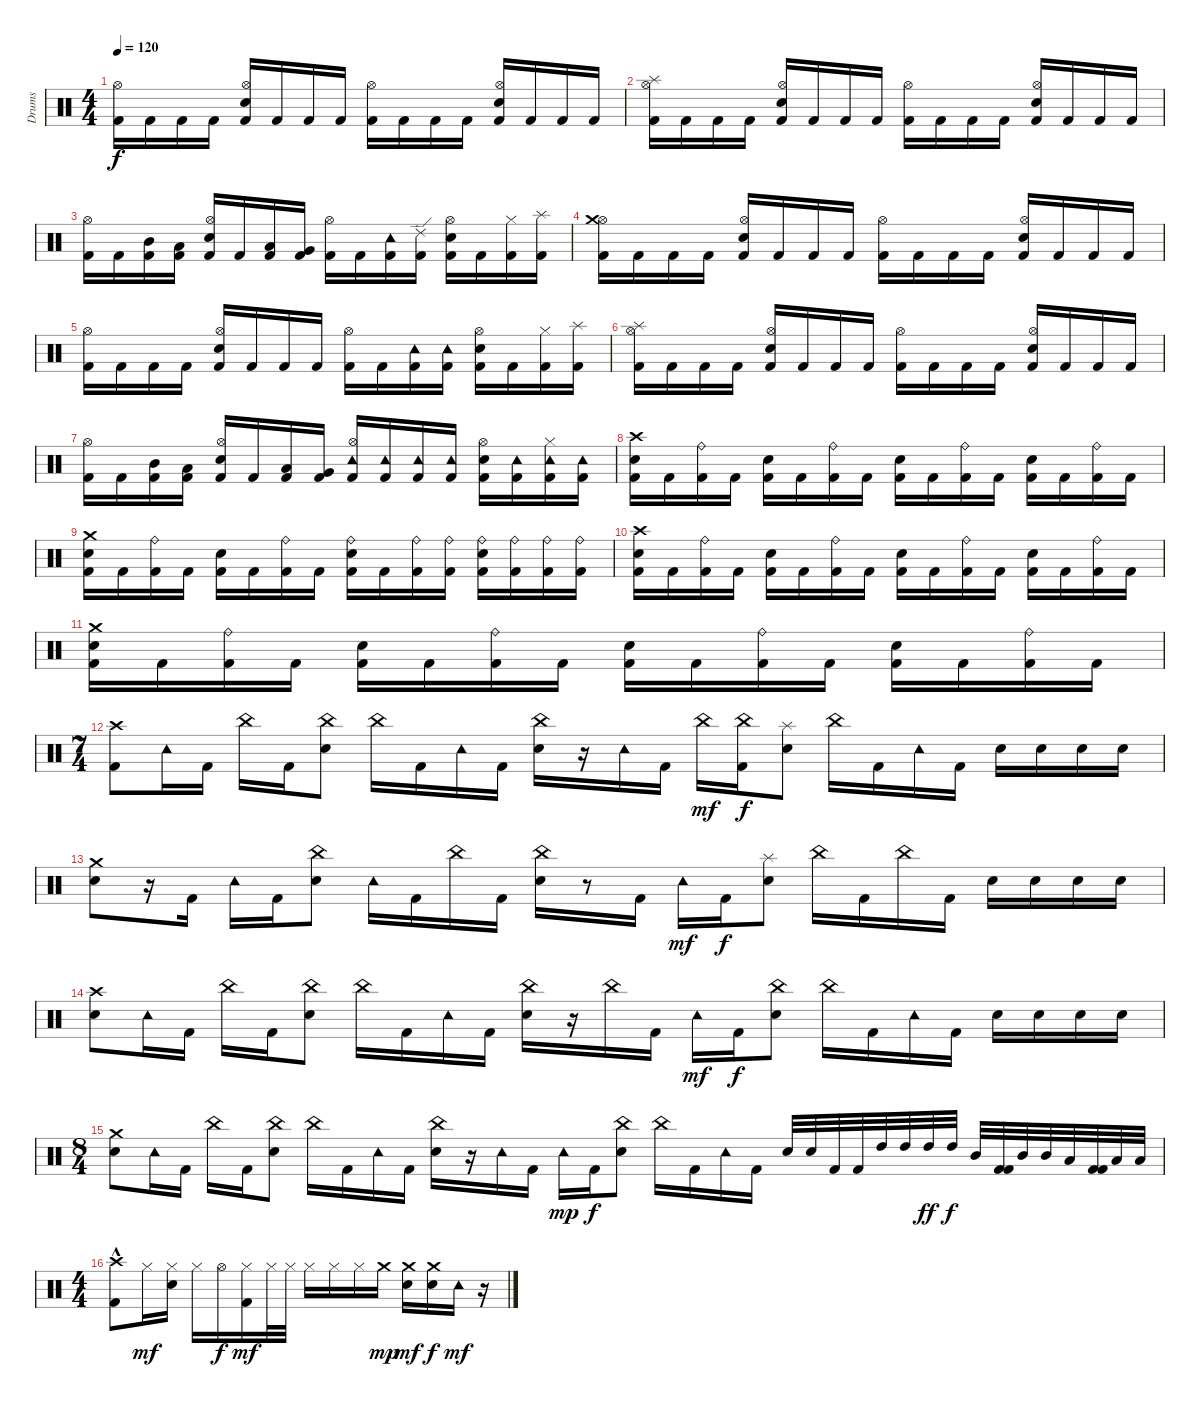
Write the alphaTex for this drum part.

\track ("Drums" "Drums") {instrument percussion}
\staff {score}
\articulation defaults
\ts (4 4)
\tempo 120
\clef neutral
\ks c
("Kick (hit) 2" "Hi-Hat (open)").16{dy f} "Kick (hit) 2".16 "Kick (hit) 2".16 "Kick (hit) 2".16 ("Kick (hit) 2" "Electric Snare (hit)" "Hi-Hat (open)").16 "Kick (hit) 2".16 "Kick (hit) 2".16 "Kick (hit) 2".16 ("Kick (hit) 2" "Hi-Hat (open)").16 "Kick (hit) 2".16 "Kick (hit) 2".16 "Kick (hit) 2".16 ("Kick (hit) 2" "Electric Snare (hit)" "Hi-Hat (open)").16 "Kick (hit) 2".16 "Kick (hit) 2".16 "Kick (hit) 2".16 |
("Kick (hit) 2" "Splash (hit)" "Hi-Hat (open)").16 "Kick (hit) 2".16 "Kick (hit) 2".16 "Kick (hit) 2".16 ("Kick (hit) 2" "Electric Snare (hit)" "Hi-Hat (open)").16 "Kick (hit) 2".16 "Kick (hit) 2".16 "Kick (hit) 2".16 ("Kick (hit) 2" "Hi-Hat (open)").16 "Kick (hit) 2".16 "Kick (hit) 2".16 "Kick (hit) 2".16 ("Kick (hit) 2" "Electric Snare (hit)" "Hi-Hat (open)").16 "Kick (hit) 2".16 "Kick (hit) 2".16 "Kick (hit) 2".16 |
("Kick (hit) 2" "Hi-Hat (open)").16 "Kick (hit) 2".16 ("Kick (hit) 2" "Mid Tom (hit)").16 ("Kick (hit) 2" "Low Tom (hit)").16 ("Kick (hit) 2" "Electric Snare (hit)" "Hi-Hat (open)").16 "Kick (hit) 2".16 ("Kick (hit) 2" "Low Tom (hit)").16 ("Kick (hit) 2" "Very Low Tom (hit)").16 ("Kick (hit) 2" "Hi-Hat (open)").16 "Kick (hit) 2".16 ("Kick (hit) 2" "Tambourine (hit)").16 ("Kick (hit) 2" "Ride (edge) 2").16 ("Kick (hit) 2" "Hi-Hat (open)" "Electric Snare (hit)").16 "Kick (hit) 2".16 ("Kick (hit) 2" "Hi-Hat (closed)").16 ("Kick (hit) 2" "Splash (hit)").16 |
("Kick (hit) 2" "Hi-Hat (open)" "Crash medium (hit)").16 "Kick (hit) 2".16 "Kick (hit) 2".16 "Kick (hit) 2".16 ("Kick (hit) 2" "Electric Snare (hit)" "Hi-Hat (open)").16 "Kick (hit) 2".16 "Kick (hit) 2".16 "Kick (hit) 2".16 ("Kick (hit) 2" "Hi-Hat (open)").16 "Kick (hit) 2".16 "Kick (hit) 2".16 "Kick (hit) 2".16 ("Kick (hit) 2" "Electric Snare (hit)" "Hi-Hat (open)").16 "Kick (hit) 2".16 "Kick (hit) 2".16 "Kick (hit) 2".16 |
("Kick (hit) 2" "Hi-Hat (open)").16 "Kick (hit) 2".16 "Kick (hit) 2".16 "Kick (hit) 2".16 ("Kick (hit) 2" "Electric Snare (hit)" "Hi-Hat (open)").16 "Kick (hit) 2".16 "Kick (hit) 2".16 "Kick (hit) 2".16 ("Hi-Hat (open)" "Kick (hit) 2").16 "Kick (hit) 2".16 ("Tambourine (hit)" "Kick (hit) 2").16 ("Kick (hit) 2" "Tambourine (hit)").16 ("Hi-Hat (open)" "Electric Snare (hit)" "Kick (hit) 2").16 "Kick (hit) 2".16 ("Hi-Hat (closed)" "Kick (hit) 2").16 ("Splash (hit)" "Kick (hit) 2").16 |
("Hi-Hat (open)" "Splash (hit)" "Kick (hit) 2").16 "Kick (hit) 2".16 "Kick (hit) 2".16 "Kick (hit) 2".16 ("Kick (hit) 2" "Electric Snare (hit)" "Hi-Hat (open)").16 "Kick (hit) 2".16 "Kick (hit) 2".16 "Kick (hit) 2".16 ("Kick (hit) 2" "Hi-Hat (open)").16 "Kick (hit) 2".16 "Kick (hit) 2".16 "Kick (hit) 2".16 ("Kick (hit) 2" "Electric Snare (hit)" "Hi-Hat (open)").16 "Kick (hit) 2".16 "Kick (hit) 2".16 "Kick (hit) 2".16 |
("Kick (hit) 2" "Hi-Hat (open)").16 "Kick (hit) 2".16 ("Kick (hit) 2" "Mid Tom (hit)").16 ("Kick (hit) 2" "Low Tom (hit)").16 ("Kick (hit) 2" "Electric Snare (hit)" "Hi-Hat (open)").16 "Kick (hit) 2".16 ("Kick (hit) 2" "Low Tom (hit)").16 ("Kick (hit) 2" "Very Low Tom (hit)").16 ("Kick (hit) 2" "Hi-Hat (open)" "Tambourine (hit)").16 ("Kick (hit) 2" "Tambourine (hit)").16 ("Kick (hit) 2" "Tambourine (hit)").16 ("Kick (hit) 2" "Tambourine (hit)").16 ("Kick (hit) 2" "Hi-Hat (open)" "Electric Snare (hit)").16 ("Kick (hit) 2" "Tambourine (hit)").16 ("Kick (hit) 2" "Hi-Hat (closed)" "Tambourine (hit)").16 ("Kick (hit) 2" "Tambourine (hit)").16 |
("Kick (hit) 2" "Electric Snare (hit)" "Crash high (hit)").16 "Kick (hit) 2".16 ("Kick (hit) 2" "Ride (bell)").16 "Kick (hit) 2".16 ("Kick (hit) 2" "Electric Snare (hit)").16 "Kick (hit) 2".16 ("Kick (hit) 2" "Ride (bell)").16 "Kick (hit) 2".16 ("Kick (hit) 2" "Electric Snare (hit)").16 "Kick (hit) 2".16 ("Kick (hit) 2" "Ride (bell)").16 "Kick (hit) 2".16 ("Kick (hit) 2" "Electric Snare (hit)").16 "Kick (hit) 2".16 ("Kick (hit) 2" "Ride (bell)").16 "Kick (hit) 2".16 |
("Kick (hit) 2" "Electric Snare (hit)" "Crash medium (hit)").16 "Kick (hit) 2".16 ("Kick (hit) 2" "Ride (bell)").16 "Kick (hit) 2".16 ("Kick (hit) 2" "Electric Snare (hit)").16 "Kick (hit) 2".16 ("Kick (hit) 2" "Ride (bell)").16 "Kick (hit) 2".16 ("Kick (hit) 2" "Electric Snare (hit)" "Ride (bell)").16 "Kick (hit) 2".16 ("Kick (hit) 2" "Ride (bell)").16 ("Kick (hit) 2" "Ride (bell)").16 ("Kick (hit) 2" "Electric Snare (hit)" "Ride (bell)").16 ("Kick (hit) 2" "Ride (bell)").16 ("Kick (hit) 2" "Ride (bell)").16 ("Kick (hit) 2" "Ride (bell)").16 |
("Crash high (hit)" "Electric Snare (hit)" "Kick (hit) 2").16 "Kick (hit) 2".16 ("Kick (hit) 2" "Ride (bell)").16 "Kick (hit) 2".16 ("Kick (hit) 2" "Electric Snare (hit)").16 "Kick (hit) 2".16 ("Kick (hit) 2" "Ride (bell)").16 "Kick (hit) 2".16 ("Kick (hit) 2" "Electric Snare (hit)").16 "Kick (hit) 2".16 ("Kick (hit) 2" "Ride (bell)").16 "Kick (hit) 2".16 ("Kick (hit) 2" "Electric Snare (hit)").16 "Kick (hit) 2".16 ("Kick (hit) 2" "Ride (bell)").16 "Kick (hit) 2".16 |
("Kick (hit) 2" "Electric Snare (hit)" "Crash medium (hit)").16 "Kick (hit) 2".16 ("Kick (hit) 2" "Ride (bell)").16 "Kick (hit) 2".16 ("Kick (hit) 2" "Electric Snare (hit)").16 "Kick (hit) 2".16 ("Kick (hit) 2" "Ride (bell)").16 "Kick (hit) 2".16 ("Kick (hit) 2" "Electric Snare (hit)").16 "Kick (hit) 2".16 ("Kick (hit) 2" "Ride (bell)").16 "Kick (hit) 2".16 ("Kick (hit) 2" "Electric Snare (hit)").16 "Kick (hit) 2".16 ("Kick (hit) 2" "Ride (bell)").16 "Kick (hit) 2".16 |
\ts (7 4)
("Crash high (hit)" "Kick (hit) 2").8 "Tambourine (hit)".16 "Kick (hit) 2".16 "China (hit)".16 "Kick (hit) 2".16 ("Electric Snare (hit)" "China (hit)").8 "China (hit)".16 "Kick (hit) 2".16 "Tambourine (hit)".16 "Kick (hit) 2".16 ("Electric Snare (hit)" "China (hit)").16 r.16 "Tambourine (hit)".16 "Kick (hit) 2".16 "China (hit)".16{dy mf} ("Kick (hit) 2" "China (hit)").16{dy f} ("Electric Snare (hit)" "Splash (hit)").8 "China (hit)".16 "Kick (hit) 2".16 "Tambourine (hit)".16 "Kick (hit) 2".16 "Electric Snare (hit)".16 "Electric Snare (hit)".16 "Electric Snare (hit)".16 "Electric Snare (hit)".16 |
("Electric Snare (hit)" "Crash medium (hit)").8 r.16 "Kick (hit) 2".16 "Tambourine (hit)".16 "Kick (hit) 2".16 ("Electric Snare (hit)" "China (hit)").8 "Tambourine (hit)".16 "Kick (hit) 2".16 "China (hit)".16 "Kick (hit) 2".16 ("Electric Snare (hit)" "China (hit)").16 r.8 "Kick (hit) 2".16 "Tambourine (hit)".16{dy mf} "Kick (hit) 2".16{dy f} ("Electric Snare (hit)" "Splash (hit)").8 "China (hit)".16 "Kick (hit) 2".16 "China (hit)".16 "Kick (hit) 2".16 "Electric Snare (hit)".16 "Electric Snare (hit)".16 "Electric Snare (hit)".16 "Electric Snare (hit)".16 |
("Crash high (hit)" "Electric Snare (hit)").8 "Tambourine (hit)".16 "Kick (hit) 2".16 "China (hit)".16 "Kick (hit) 2".16 ("Electric Snare (hit)" "China (hit)").8 "China (hit)".16 "Kick (hit) 2".16 "Tambourine (hit)".16 "Kick (hit) 2".16 ("Electric Snare (hit)" "China (hit)").16 r.16 "China (hit)".16 "Kick (hit) 2".16 "Tambourine (hit)".16{dy mf} "Kick (hit) 2".16{dy f} ("Electric Snare (hit)" "China (hit)").8 "China (hit)".16 "Kick (hit) 2".16 "Tambourine (hit)".16 "Kick (hit) 2".16 "Electric Snare (hit)".16 "Electric Snare (hit)".16 "Electric Snare (hit)".16 "Electric Snare (hit)".16 |
\ts (8 4)
("Crash medium (hit)" "Electric Snare (hit)").8 "Tambourine (hit)".16 "Kick (hit) 2".16 "China (hit)".16 "Kick (hit) 2".16 ("Electric Snare (hit)" "China (hit)").8 "China (hit)".16 "Kick (hit) 2".16 "Tambourine (hit)".16 "Kick (hit) 2".16 ("Electric Snare (hit)" "China (hit)").16 r.16 "Tambourine (hit)".16 "Kick (hit) 2".16 "Tambourine (hit)".16{dy mp} "Kick (hit) 2".16{dy f} ("China (hit)" "Electric Snare (hit)").8 "China (hit)".16 "Kick (hit) 2".16 "Tambourine (hit)".16 "Kick (hit) 2".16 "Electric Snare (hit)".32 "Electric Snare (hit)".32 "Kick (hit) 2".32 "Kick (hit) 2".32 "High Tom (hit)".32 "High Tom (hit)".32 "High Tom (hit)".32{dy ff} "High Tom (hit)".32{dy f} "Mid Tom (hit)".32 ("Kick (hit) 2" "Kick (hit) 2").32 "Mid Tom (hit)".32 "Mid Tom (hit)".32 "Low Tom (hit)".32 ("Kick (hit) 2" "Kick (hit) 2").32 "Low Tom (hit)".32 "Low Tom (hit)".32 |
\ts (4 4)
("Crash high (hit)" "Kick (hit) 2"{hac}).8 "Hi-Hat (closed)".16{dy mf} ("Electric Snare (hit)" "Hi-Hat (closed)").16 "Hi-Hat (closed)".16 "Hi-Hat (open)".16{dy f} ("Kick (hit) 2" "Hi-Hat (closed)").16{dy mf} "Hi-Hat (closed)".32 "Hi-Hat (closed)".32 "Hi-Hat (closed)".16 "Hi-Hat (closed)".16 "Hi-Hat (closed)".16 "Crash medium (hit)".16{dy mp} ("Electric Snare (hit)" "Crash medium (hit)").16{dy mf} ("Electric Snare (hit)" "Crash medium (hit)").16{dy f} "Tambourine (hit)".16{dy mf} r.16
